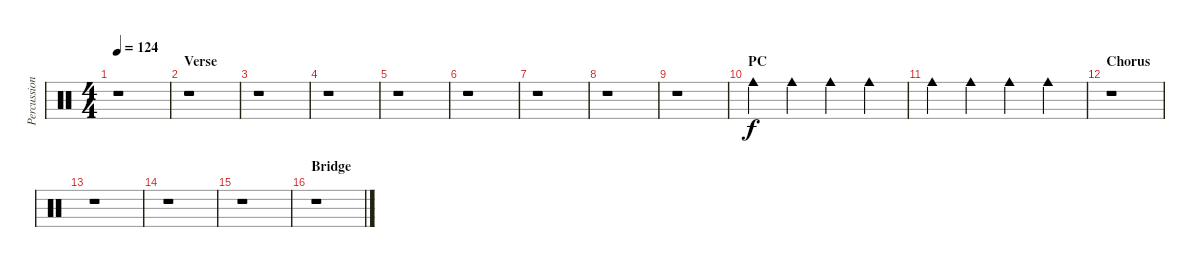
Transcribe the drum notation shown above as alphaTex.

\track ("Percussion" "Percussion") {instrument percussion}
\staff {score}
\articulation defaults
\ts (4 4)
\tempo 124
\clef neutral
\ks c
r.1{dy f} |
\section ("" "Verse")
r.1 |
r.1 |
r.1 |
r.1 |
r.1 |
r.1 |
r.1 |
r.1 |
\section ("" "PC")
"Cowbell medium (hit)".4 "Cowbell medium (hit)".4 "Cowbell medium (hit)".4 "Cowbell medium (hit)".4 |
"Cowbell medium (hit)".4 "Cowbell medium (hit)".4 "Cowbell medium (hit)".4 "Cowbell medium (hit)".4 |
\section ("" "Chorus")
r.1 |
r.1 |
r.1 |
r.1 |
\section ("" "Bridge")
r.1
